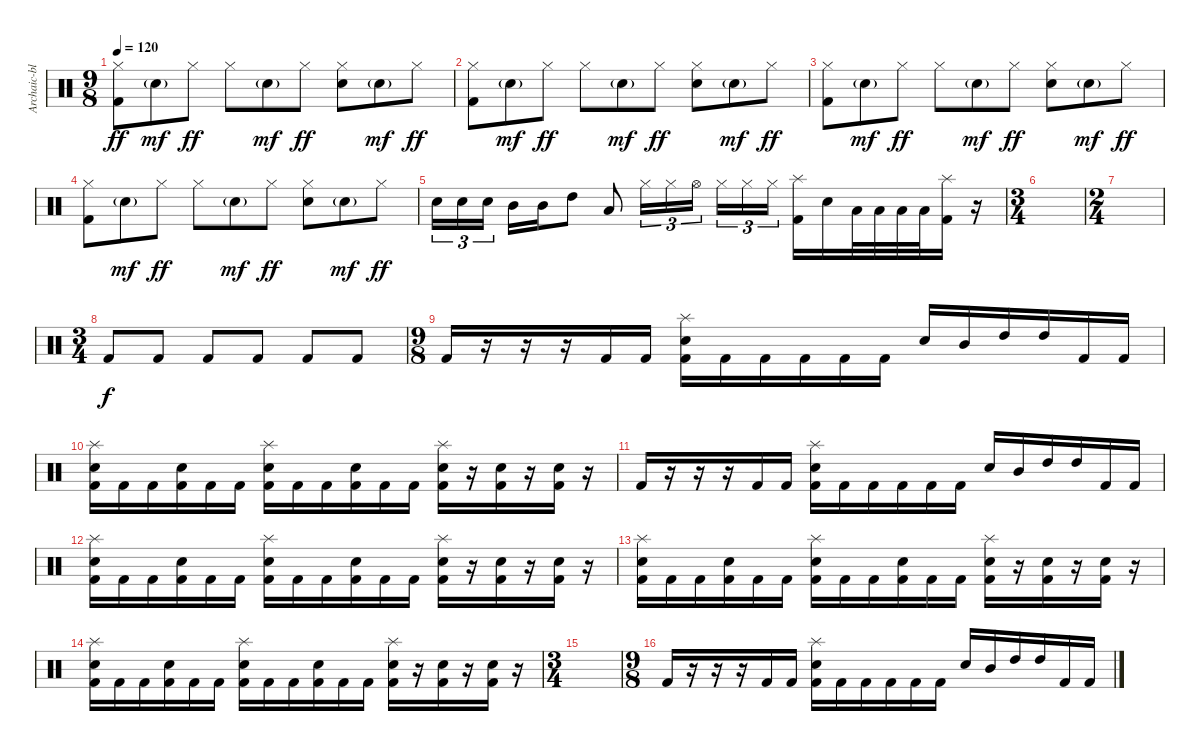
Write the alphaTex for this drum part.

\track ("Archaic-blasting fellow" "Archaic-bl") {instrument percussion}
\staff {score}
\articulation defaults
\ts (9 8)
\tempo 120
\clef neutral
\ks c
("Kick (hit) 2" "Hi-Hat (closed)").8{dy ff} "Snare (hit) 2"{g}.8{dy mf} "Hi-Hat (closed)".8{dy ff} "Hi-Hat (closed)".8 "Snare (hit) 2"{g}.8{dy mf} "Hi-Hat (closed)".8{dy ff} ("Snare (hit) 2" "Hi-Hat (closed)").8 "Snare (hit) 2"{g}.8{dy mf} "Hi-Hat (closed)".8{dy ff} |
("Kick (hit) 2" "Hi-Hat (closed)").8 "Snare (hit) 2"{g}.8{dy mf} "Hi-Hat (closed)".8{dy ff} "Hi-Hat (closed)".8 "Snare (hit) 2"{g}.8{dy mf} "Hi-Hat (closed)".8{dy ff} ("Snare (hit) 2" "Hi-Hat (closed)").8 "Snare (hit) 2"{g}.8{dy mf} "Hi-Hat (closed)".8{dy ff} |
("Kick (hit) 2" "Hi-Hat (closed)").8 "Snare (hit) 2"{g}.8{dy mf} "Hi-Hat (closed)".8{dy ff} "Hi-Hat (closed)".8 "Snare (hit) 2"{g}.8{dy mf} "Hi-Hat (closed)".8{dy ff} ("Snare (hit) 2" "Hi-Hat (closed)").8 "Snare (hit) 2"{g}.8{dy mf} "Hi-Hat (closed)".8{dy ff} |
("Kick (hit) 2" "Hi-Hat (closed)").8 "Snare (hit) 2"{g}.8{dy mf} "Hi-Hat (closed)".8{dy ff} "Hi-Hat (closed)".8 "Snare (hit) 2"{g}.8{dy mf} "Hi-Hat (closed)".8{dy ff} ("Snare (hit) 2" "Hi-Hat (closed)").8 "Snare (hit) 2"{g}.8{dy mf} "Hi-Hat (closed)".8{dy ff} |
"Snare (hit) 2".16{tu (3 2)} "Snare (hit) 2".16{tu (3 2)} "Snare (hit) 2".16{tu (3 2) beam splitsecondary} "Mid Tom (hit)".16 "Mid Tom (hit)".16 "High Tom (hit)".8 "Low Tom (hit)".8 "Hi-Hat (closed)".16{tu (3 2)} "Hi-Hat (closed)".16{tu (3 2)} "Hi-Hat (open)".16{tu (3 2) beam splitsecondary} "Hi-Hat (closed)".16{tu (3 2)} "Hi-Hat (closed)".16{tu (3 2)} "Hi-Hat (closed)".16{tu (3 2)} ("Splash (hit)" "Kick (hit) 2").16 "Snare (hit) 2".16 "Low Tom (hit)".32 "Low Tom (hit)".32 "Low Tom (hit)".32 "Low Tom (hit)".32 ("Kick (hit) 2" "Splash (hit)").16 r.16 |
\ts (3 4)
|
\ts (2 4)
|
\ts (3 4)
"Kick (hit) 2".8{dy f} "Kick (hit) 2".8 "Kick (hit) 2".8 "Kick (hit) 2".8 "Kick (hit) 2".8 "Kick (hit) 2".8 |
\ts (9 8)
"Kick (hit) 2".16 r.16 r.16 r.16 "Kick (hit) 2".16 "Kick (hit) 2".16 ("Kick (hit) 2" "Splash (hit)" "Snare (hit) 2").16 "Kick (hit) 2".16 "Kick (hit) 2".16 "Kick (hit) 2".16 "Kick (hit) 2".16 "Kick (hit) 2".16 "Snare (hit) 2".16 "Mid Tom (hit)".16 "High Tom (hit)".16 "High Tom (hit)".16 "Kick (hit) 2".16 "Kick (hit) 2".16 |
("Kick (hit) 2" "Splash (hit)" "Snare (hit) 2").16 "Kick (hit) 2".16 "Kick (hit) 2".16 ("Kick (hit) 2" "Snare (hit) 2").16 "Kick (hit) 2".16 "Kick (hit) 2".16 ("Kick (hit) 2" "Splash (hit)" "Snare (hit) 2").16 "Kick (hit) 2".16 "Kick (hit) 2".16 ("Kick (hit) 2" "Snare (hit) 2").16 "Kick (hit) 2".16 "Kick (hit) 2".16 ("Kick (hit) 2" "Splash (hit)" "Snare (hit) 2").16 r.16 ("Kick (hit) 2" "Snare (hit) 2").16 r.16 ("Kick (hit) 2" "Snare (hit) 2").16 r.16 |
"Kick (hit) 2".16 r.16 r.16 r.16 "Kick (hit) 2".16 "Kick (hit) 2".16 ("Kick (hit) 2" "Splash (hit)" "Snare (hit) 2").16 "Kick (hit) 2".16 "Kick (hit) 2".16 "Kick (hit) 2".16 "Kick (hit) 2".16 "Kick (hit) 2".16 "Snare (hit) 2".16 "Mid Tom (hit)".16 "High Tom (hit)".16 "High Tom (hit)".16 "Kick (hit) 2".16 "Kick (hit) 2".16 |
("Kick (hit) 2" "Splash (hit)" "Snare (hit) 2").16 "Kick (hit) 2".16 "Kick (hit) 2".16 ("Kick (hit) 2" "Snare (hit) 2").16 "Kick (hit) 2".16 "Kick (hit) 2".16 ("Kick (hit) 2" "Splash (hit)" "Snare (hit) 2").16 "Kick (hit) 2".16 "Kick (hit) 2".16 ("Kick (hit) 2" "Snare (hit) 2").16 "Kick (hit) 2".16 "Kick (hit) 2".16 ("Kick (hit) 2" "Splash (hit)" "Snare (hit) 2").16 r.16 ("Kick (hit) 2" "Snare (hit) 2").16 r.16 ("Kick (hit) 2" "Snare (hit) 2").16 r.16 |
("Kick (hit) 2" "Splash (hit)" "Snare (hit) 2").16 "Kick (hit) 2".16 "Kick (hit) 2".16 ("Kick (hit) 2" "Snare (hit) 2").16 "Kick (hit) 2".16 "Kick (hit) 2".16 ("Kick (hit) 2" "Splash (hit)" "Snare (hit) 2").16 "Kick (hit) 2".16 "Kick (hit) 2".16 ("Kick (hit) 2" "Snare (hit) 2").16 "Kick (hit) 2".16 "Kick (hit) 2".16 ("Kick (hit) 2" "Splash (hit)" "Snare (hit) 2").16 r.16 ("Kick (hit) 2" "Snare (hit) 2").16 r.16 ("Kick (hit) 2" "Snare (hit) 2").16 r.16 |
("Kick (hit) 2" "Splash (hit)" "Snare (hit) 2").16 "Kick (hit) 2".16 "Kick (hit) 2".16 ("Kick (hit) 2" "Snare (hit) 2").16 "Kick (hit) 2".16 "Kick (hit) 2".16 ("Kick (hit) 2" "Splash (hit)" "Snare (hit) 2").16 "Kick (hit) 2".16 "Kick (hit) 2".16 ("Kick (hit) 2" "Snare (hit) 2").16 "Kick (hit) 2".16 "Kick (hit) 2".16 ("Kick (hit) 2" "Splash (hit)" "Snare (hit) 2").16 r.16 ("Kick (hit) 2" "Snare (hit) 2").16 r.16 ("Kick (hit) 2" "Snare (hit) 2").16 r.16 |
\ts (3 4)
|
\ts (9 8)
"Kick (hit) 2".16 r.16 r.16 r.16 "Kick (hit) 2".16 "Kick (hit) 2".16 ("Kick (hit) 2" "Splash (hit)" "Snare (hit) 2").16 "Kick (hit) 2".16 "Kick (hit) 2".16 "Kick (hit) 2".16 "Kick (hit) 2".16 "Kick (hit) 2".16 "Snare (hit) 2".16 "Mid Tom (hit)".16 "High Tom (hit)".16 "High Tom (hit)".16 "Kick (hit) 2".16 "Kick (hit) 2".16
